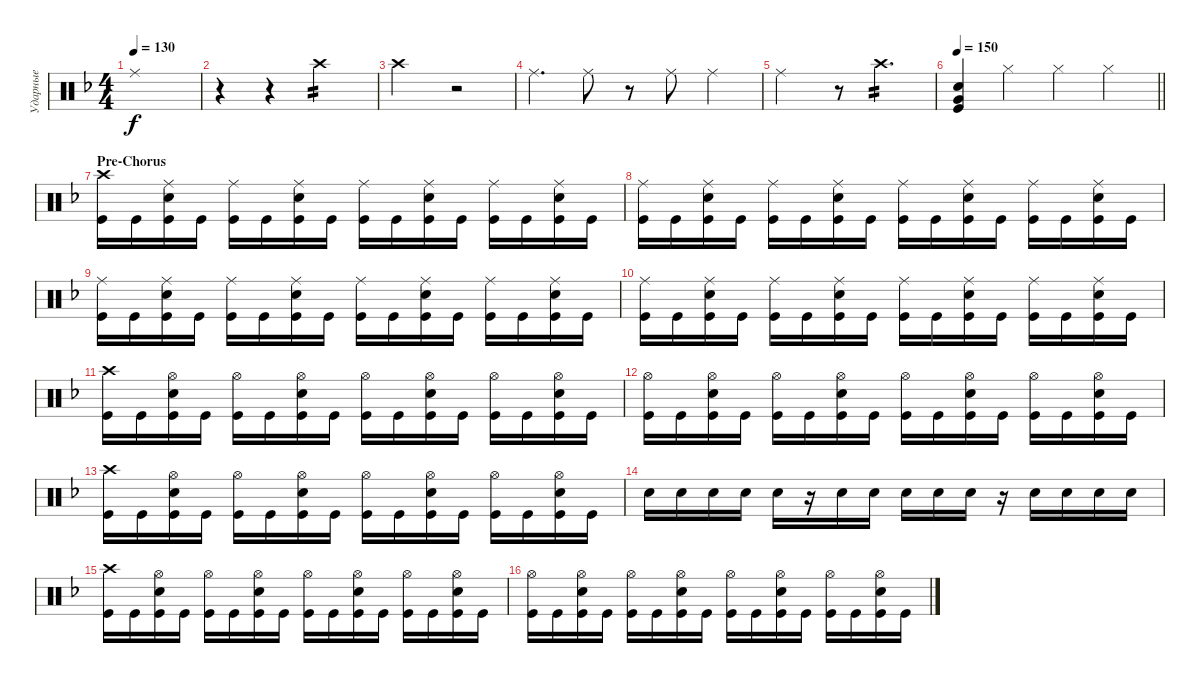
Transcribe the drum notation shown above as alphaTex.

\track ("Ударные" "Ударные") {instrument percussion}
\staff {score}
\articulation defaults
\ts (4 4)
\tempo 130
\clef neutral
\ks dminor "Ride (middle)".1{dy f}
|
r.4 r.4{volume 0} "Crash high (hit)".2{tp 2 volume 14} |
"Crash high (hit)".2 r.2 |
"Ride (middle)".4{d} "Ride (middle)".8 r.8 "Ride (middle)".8 "Ride (middle)".4 |
"Ride (middle)".2 r.8{volume 0} "Crash high (hit)".4{d tp 2 volume 14} |
\tempo 150
\barLineRight lightlight
("Kick (hit)" "Snare (hit) 2" "Very Low Tom (hit)").4{bd 240 volume 14} "Hi-Hat (closed)".4 "Hi-Hat (closed)".4 "Hi-Hat (closed)".4 |
\section ("" "Pre-Chorus")
("Kick (hit)" "Crash high (hit)").16 "Kick (hit)".16 ("Kick (hit)" "Snare (hit) 2" "Ride (middle)").16 "Kick (hit)".16 ("Kick (hit)" "Ride (middle)").16 "Kick (hit)".16 ("Kick (hit)" "Snare (hit) 2" "Ride (middle)").16 "Kick (hit)".16 ("Kick (hit)" "Ride (middle)").16 "Kick (hit)".16 ("Snare (hit) 2" "Kick (hit)" "Ride (middle)").16 "Kick (hit)".16 ("Kick (hit)" "Ride (middle)").16 "Kick (hit)".16 ("Kick (hit)" "Snare (hit) 2" "Ride (middle)").16 "Kick (hit)".16 |
("Kick (hit)" "Ride (middle)").16 "Kick (hit)".16 ("Kick (hit)" "Snare (hit) 2" "Ride (middle)").16 "Kick (hit)".16 ("Kick (hit)" "Ride (middle)").16 "Kick (hit)".16 ("Kick (hit)" "Snare (hit) 2" "Ride (middle)").16 "Kick (hit)".16 ("Kick (hit)" "Ride (middle)").16 "Kick (hit)".16 ("Snare (hit) 2" "Kick (hit)" "Ride (middle)").16 "Kick (hit)".16 ("Kick (hit)" "Ride (middle)").16 "Kick (hit)".16 ("Kick (hit)" "Snare (hit) 2" "Ride (middle)").16 "Kick (hit)".16 |
("Kick (hit)" "Ride (middle)").16 "Kick (hit)".16 ("Kick (hit)" "Snare (hit) 2" "Ride (middle)").16 "Kick (hit)".16 ("Kick (hit)" "Ride (middle)").16 "Kick (hit)".16 ("Kick (hit)" "Snare (hit) 2" "Ride (middle)").16 "Kick (hit)".16 ("Kick (hit)" "Ride (middle)").16 "Kick (hit)".16 ("Snare (hit) 2" "Kick (hit)" "Ride (middle)").16 "Kick (hit)".16 ("Kick (hit)" "Ride (middle)").16 "Kick (hit)".16 ("Kick (hit)" "Snare (hit) 2" "Ride (middle)").16 "Kick (hit)".16 |
("Kick (hit)" "Ride (middle)").16 "Kick (hit)".16 ("Kick (hit)" "Snare (hit) 2" "Ride (middle)").16 "Kick (hit)".16 ("Kick (hit)" "Ride (middle)").16 "Kick (hit)".16 ("Kick (hit)" "Snare (hit) 2" "Ride (middle)").16 "Kick (hit)".16 ("Kick (hit)" "Ride (middle)").16 "Kick (hit)".16 ("Snare (hit) 2" "Kick (hit)" "Ride (middle)").16 "Kick (hit)".16 ("Kick (hit)" "Ride (middle)").16 "Kick (hit)".16 ("Kick (hit)" "Snare (hit) 2" "Ride (middle)").16 "Kick (hit)".16 |
("Kick (hit)" "Crash high (hit)").16 "Kick (hit)".16 ("Kick (hit)" "Snare (hit) 2" "Hi-Hat (open)").16 "Kick (hit)".16 ("Kick (hit)" "Hi-Hat (open)").16 "Kick (hit)".16 ("Kick (hit)" "Snare (hit) 2" "Hi-Hat (open)").16 "Kick (hit)".16 ("Kick (hit)" "Hi-Hat (open)").16 "Kick (hit)".16 ("Snare (hit) 2" "Kick (hit)" "Hi-Hat (open)").16 "Kick (hit)".16 ("Kick (hit)" "Hi-Hat (open)").16 "Kick (hit)".16 ("Kick (hit)" "Snare (hit) 2" "Hi-Hat (open)").16 "Kick (hit)".16 |
("Kick (hit)" "Hi-Hat (open)").16 "Kick (hit)".16 ("Kick (hit)" "Snare (hit) 2" "Hi-Hat (open)").16 "Kick (hit)".16 ("Kick (hit)" "Hi-Hat (open)").16 "Kick (hit)".16 ("Kick (hit)" "Snare (hit) 2" "Hi-Hat (open)").16 "Kick (hit)".16 ("Kick (hit)" "Hi-Hat (open)").16 "Kick (hit)".16 ("Snare (hit) 2" "Kick (hit)" "Hi-Hat (open)").16 "Kick (hit)".16 ("Kick (hit)" "Hi-Hat (open)").16 "Kick (hit)".16 ("Kick (hit)" "Snare (hit) 2" "Hi-Hat (open)").16 "Kick (hit)".16 |
("Kick (hit)" "Crash high (hit)").16 "Kick (hit)".16 ("Kick (hit)" "Snare (hit) 2" "Hi-Hat (open)").16 "Kick (hit)".16 ("Kick (hit)" "Hi-Hat (open)").16 "Kick (hit)".16 ("Kick (hit)" "Snare (hit) 2" "Hi-Hat (open)").16 "Kick (hit)".16 ("Kick (hit)" "Hi-Hat (open)").16 "Kick (hit)".16 ("Snare (hit) 2" "Kick (hit)" "Hi-Hat (open)").16 "Kick (hit)".16 ("Kick (hit)" "Hi-Hat (open)").16 "Kick (hit)".16 ("Kick (hit)" "Snare (hit) 2" "Hi-Hat (open)").16 "Kick (hit)".16 |
"Snare (hit) 2".16 "Snare (hit) 2".16 "Snare (hit) 2".16 "Snare (hit) 2".16 "Snare (hit) 2".16 r.16 "Snare (hit) 2".16 "Snare (hit) 2".16 "Snare (hit) 2".16 "Snare (hit) 2".16 "Snare (hit) 2".16 r.16 "Snare (hit) 2".16 "Snare (hit) 2".16 "Snare (hit) 2".16 "Snare (hit) 2".16 |
("Kick (hit)" "Crash high (hit)").16 "Kick (hit)".16 ("Kick (hit)" "Snare (hit) 2" "Hi-Hat (open)").16 "Kick (hit)".16 ("Kick (hit)" "Hi-Hat (open)").16 "Kick (hit)".16 ("Kick (hit)" "Snare (hit) 2" "Hi-Hat (open)").16 "Kick (hit)".16 ("Kick (hit)" "Hi-Hat (open)").16 "Kick (hit)".16 ("Snare (hit) 2" "Kick (hit)" "Hi-Hat (open)").16 "Kick (hit)".16 ("Kick (hit)" "Hi-Hat (open)").16 "Kick (hit)".16 ("Kick (hit)" "Snare (hit) 2" "Hi-Hat (open)").16 "Kick (hit)".16 |
("Kick (hit)" "Hi-Hat (open)").16 "Kick (hit)".16 ("Kick (hit)" "Snare (hit) 2" "Hi-Hat (open)").16 "Kick (hit)".16 ("Kick (hit)" "Hi-Hat (open)").16 "Kick (hit)".16 ("Kick (hit)" "Snare (hit) 2" "Hi-Hat (open)").16 "Kick (hit)".16 ("Kick (hit)" "Hi-Hat (open)").16 "Kick (hit)".16 ("Snare (hit) 2" "Kick (hit)" "Hi-Hat (open)").16 "Kick (hit)".16 ("Kick (hit)" "Hi-Hat (open)").16 "Kick (hit)".16 ("Kick (hit)" "Snare (hit) 2" "Hi-Hat (open)").16 "Kick (hit)".16
